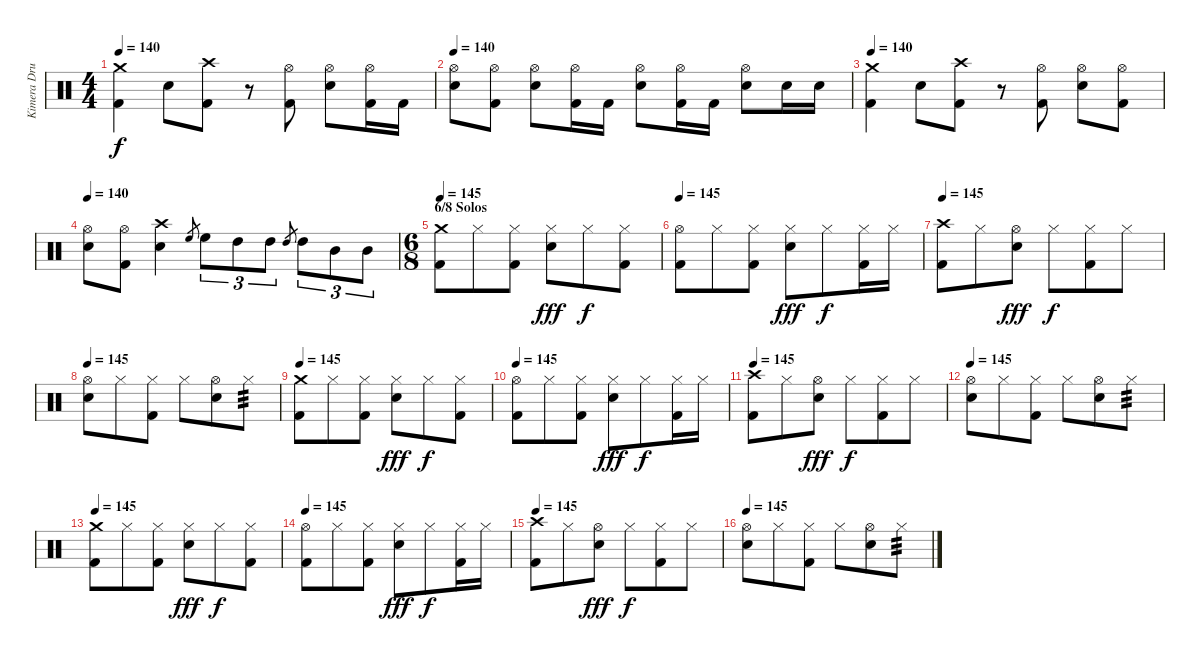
\track ("Kimera Drummer" "Kimera Dru") {instrument percussion}
\staff {score}
\articulation defaults
\ts (4 4)
\tempo 140
\clef neutral
\ks c
("Crash medium (hit)" "Kick (hit) 2").4{dy f} "Electric Snare (hit)".8 ("Crash high (hit)" "Kick (hit) 2").8 r.8 ("Hi-Hat (open)" "Kick (hit) 2").8 ("Hi-Hat (open)" "Electric Snare (hit)").8 ("Hi-Hat (open)" "Kick (hit) 2").16 "Kick (hit) 2".16 |
\tempo 140
("Hi-Hat (open)" "Electric Snare (hit)").8 ("Hi-Hat (open)" "Kick (hit) 2").8 ("Hi-Hat (open)" "Electric Snare (hit)").8 ("Hi-Hat (open)" "Kick (hit) 2").16 "Kick (hit) 2".16 ("Hi-Hat (open)" "Electric Snare (hit)").8 ("Hi-Hat (open)" "Kick (hit) 2").16 "Kick (hit) 2".16 ("Hi-Hat (open)" "Electric Snare (hit)").8 "Electric Snare (hit)".16 "Electric Snare (hit)".16 |
\tempo 140
("Crash medium (hit)" "Kick (hit) 2").4 "Electric Snare (hit)".8 ("Crash high (hit)" "Kick (hit) 2").8 r.8 ("Hi-Hat (open)" "Kick (hit) 2").8 ("Hi-Hat (open)" "Electric Snare (hit)").8 ("Hi-Hat (open)" "Kick (hit) 2").8 |
\tempo 140
("Hi-Hat (open)" "Electric Snare (hit)").8 ("Hi-Hat (open)" "Kick (hit) 2").8 ("Crash high (hit)" "Electric Snare (hit)").4 "High Floor Tom (hit)".8{gr} "High Floor Tom (hit)".8{tu (3 2)} "High Tom (hit)".8{tu (3 2)} "High Tom (hit)".8{tu (3 2)} "High Tom (hit)".8{gr} "High Tom (hit)".8{tu (3 2)} "Mid Tom (hit)".8{tu (3 2)} "Mid Tom (hit)".8{tu (3 2)} |
\ts (6 8)
\section ("" "6/8 Solos")
\tempo 145
("Crash medium (hit)" "Kick (hit) 2").8 "Hi-Hat (closed)".8 ("Hi-Hat (closed)" "Kick (hit) 2").8 ("Hi-Hat (closed)" "Electric Snare (hit)").8{dy fff} "Hi-Hat (closed)".8{dy f} ("Hi-Hat (closed)" "Kick (hit) 2").8 |
\tempo 145
("Hi-Hat (open)" "Kick (hit) 2").8 "Hi-Hat (closed)".8 ("Hi-Hat (closed)" "Kick (hit) 2").8 ("Hi-Hat (closed)" "Electric Snare (hit)").8{dy fff} "Hi-Hat (closed)".8{dy f} ("Hi-Hat (closed)" "Kick (hit) 2").16 "Hi-Hat (closed)".16 |
\tempo 145
("Crash high (hit)" "Kick (hit) 2").8 "Hi-Hat (closed)".8 ("Hi-Hat (open)" "Electric Snare (hit)").8{dy fff} "Hi-Hat (closed)".8{dy f} ("Hi-Hat (closed)" "Kick (hit) 2").8 "Hi-Hat (closed)".8 |
\tempo 145
("Hi-Hat (open)" "Electric Snare (hit)").8 "Hi-Hat (closed)".8 ("Hi-Hat (closed)" "Kick (hit) 2").8 "Hi-Hat (closed)".8 ("Hi-Hat (open)" "Electric Snare (hit)").8 "Hi-Hat (closed)".8{tp 3} |
\tempo 145
("Crash medium (hit)" "Kick (hit) 2").8 "Hi-Hat (closed)".8 ("Hi-Hat (closed)" "Kick (hit) 2").8 ("Hi-Hat (closed)" "Electric Snare (hit)").8{dy fff} "Hi-Hat (closed)".8{dy f} ("Hi-Hat (closed)" "Kick (hit) 2").8 |
\tempo 145
("Hi-Hat (open)" "Kick (hit) 2").8 "Hi-Hat (closed)".8 ("Hi-Hat (closed)" "Kick (hit) 2").8 ("Hi-Hat (closed)" "Electric Snare (hit)").8{dy fff} "Hi-Hat (closed)".8{dy f} ("Hi-Hat (closed)" "Kick (hit) 2").16 "Hi-Hat (closed)".16 |
\tempo 145
("Crash high (hit)" "Kick (hit) 2").8 "Hi-Hat (closed)".8 ("Hi-Hat (open)" "Electric Snare (hit)").8{dy fff} "Hi-Hat (closed)".8{dy f} ("Hi-Hat (closed)" "Kick (hit) 2").8 "Hi-Hat (closed)".8 |
\tempo 145
("Hi-Hat (open)" "Electric Snare (hit)").8 "Hi-Hat (closed)".8 ("Hi-Hat (closed)" "Kick (hit) 2").8 "Hi-Hat (closed)".8 ("Hi-Hat (open)" "Electric Snare (hit)").8 "Hi-Hat (closed)".8{tp 3} |
\tempo 145
("Crash medium (hit)" "Kick (hit) 2").8 "Hi-Hat (closed)".8 ("Hi-Hat (closed)" "Kick (hit) 2").8 ("Hi-Hat (closed)" "Electric Snare (hit)").8{dy fff} "Hi-Hat (closed)".8{dy f} ("Hi-Hat (closed)" "Kick (hit) 2").8 |
\tempo 145
("Hi-Hat (open)" "Kick (hit) 2").8 "Hi-Hat (closed)".8 ("Hi-Hat (closed)" "Kick (hit) 2").8 ("Hi-Hat (closed)" "Electric Snare (hit)").8{dy fff} "Hi-Hat (closed)".8{dy f} ("Hi-Hat (closed)" "Kick (hit) 2").16 "Hi-Hat (closed)".16 |
\tempo 145
("Crash high (hit)" "Kick (hit) 2").8 "Hi-Hat (closed)".8 ("Hi-Hat (open)" "Electric Snare (hit)").8{dy fff} "Hi-Hat (closed)".8{dy f} ("Hi-Hat (closed)" "Kick (hit) 2").8 "Hi-Hat (closed)".8 |
\tempo 145
("Hi-Hat (open)" "Electric Snare (hit)").8 "Hi-Hat (closed)".8 ("Hi-Hat (closed)" "Kick (hit) 2").8 "Hi-Hat (closed)".8 ("Hi-Hat (open)" "Electric Snare (hit)").8 "Hi-Hat (closed)".8{tp 3}
